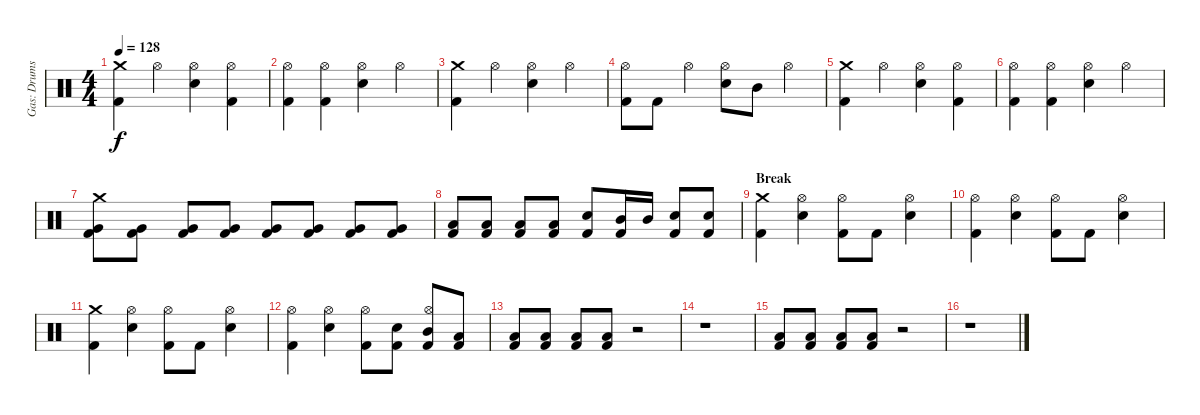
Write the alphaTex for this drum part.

\track ("Gas: Drums" "Gas: Drums") {instrument percussion}
\staff {score}
\articulation defaults
\ts (4 4)
\tempo 128
\clef neutral
\ks c
("Crash medium (hit)" "Kick (hit) 2").4{dy f} "Hi-Hat (open)".4 ("Hi-Hat (open)" "Electric Snare (hit)").4 ("Hi-Hat (open)" "Kick (hit) 2").4 |
("Hi-Hat (open)" "Kick (hit) 2").4 ("Hi-Hat (open)" "Kick (hit) 2").4 ("Hi-Hat (open)" "Electric Snare (hit)").4 "Hi-Hat (open)".4 |
("Crash medium (hit)" "Kick (hit) 2").4 "Hi-Hat (open)".4 ("Hi-Hat (open)" "Electric Snare (hit)").4 "Hi-Hat (open)".4 |
("Hi-Hat (open)" "Kick (hit) 2").8 "Kick (hit) 2".8 "Hi-Hat (open)".4 ("Hi-Hat (open)" "Electric Snare (hit)").8 "Mid Tom (hit)".8 "Hi-Hat (open)".4 |
("Crash medium (hit)" "Kick (hit) 2").4 "Hi-Hat (open)".4 ("Hi-Hat (open)" "Electric Snare (hit)").4 ("Hi-Hat (open)" "Kick (hit) 2").4 |
("Hi-Hat (open)" "Kick (hit) 2").4 ("Hi-Hat (open)" "Kick (hit) 2").4 ("Hi-Hat (open)" "Electric Snare (hit)").4 "Hi-Hat (open)".4 |
("Crash medium (hit)" "Very Low Tom (hit)" "Kick (hit) 2").8 ("Very Low Tom (hit)" "Kick (hit) 2").8 ("Very Low Tom (hit)" "Kick (hit) 2").8 ("Very Low Tom (hit)" "Kick (hit) 2").8 ("Very Low Tom (hit)" "Kick (hit) 2").8 ("Very Low Tom (hit)" "Kick (hit) 2").8 ("Very Low Tom (hit)" "Kick (hit) 2").8 ("Very Low Tom (hit)" "Kick (hit) 2").8 |
("Low Tom (hit)" "Kick (hit) 2").8 ("Low Tom (hit)" "Kick (hit) 2").8 ("Low Tom (hit)" "Kick (hit) 2").8 ("Low Tom (hit)" "Kick (hit) 2").8 ("Electric Snare (hit)" "Kick (hit) 2").8 ("Mid Tom (hit)" "Kick (hit) 2").16 "Mid Tom (hit)".16 ("Electric Snare (hit)" "Kick (hit) 2").8 ("Electric Snare (hit)" "Kick (hit) 2").8 |
\section ("" "Break")
("Crash medium (hit)" "Kick (hit) 2").4 ("Hi-Hat (open)" "Electric Snare (hit)").4 ("Hi-Hat (open)" "Kick (hit) 2").8 "Kick (hit) 2".8 ("Hi-Hat (open)" "Electric Snare (hit)").4 |
("Hi-Hat (open)" "Kick (hit) 2").4 ("Hi-Hat (open)" "Electric Snare (hit)").4 ("Hi-Hat (open)" "Kick (hit) 2").8 "Kick (hit) 2".8 ("Hi-Hat (open)" "Electric Snare (hit)").4 |
("Crash medium (hit)" "Kick (hit) 2").4 ("Hi-Hat (open)" "Electric Snare (hit)").4 ("Hi-Hat (open)" "Kick (hit) 2").8 "Kick (hit) 2".8 ("Hi-Hat (open)" "Electric Snare (hit)").4 |
("Hi-Hat (open)" "Kick (hit) 2").4 ("Hi-Hat (open)" "Electric Snare (hit)").4 ("Hi-Hat (open)" "Kick (hit) 2").8 ("Electric Snare (hit)" "Kick (hit) 2").8 ("Hi-Hat (open)" "Mid Tom (hit)" "Kick (hit) 2").8 ("Low Tom (hit)" "Kick (hit) 2").8 |
("Low Tom (hit)" "Kick (hit) 2").8 ("Low Tom (hit)" "Kick (hit) 2").8 ("Low Tom (hit)" "Kick (hit) 2").8 ("Low Tom (hit)" "Kick (hit) 2").8 r.2 |
r.1 |
("Low Tom (hit)" "Kick (hit) 2").8 ("Low Tom (hit)" "Kick (hit) 2").8 ("Low Tom (hit)" "Kick (hit) 2").8 ("Low Tom (hit)" "Kick (hit) 2").8 r.2 |
r.1
